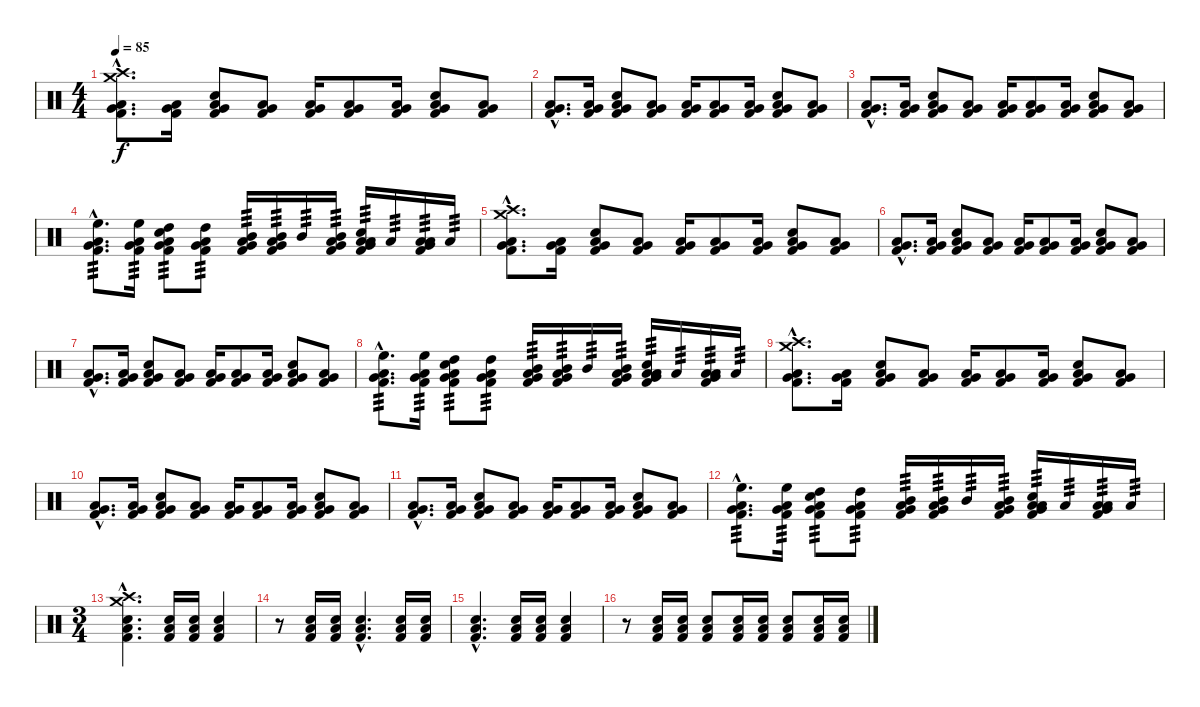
\track "" {instrument percussion}
\staff {score}
\articulation defaults
\ts (4 4)
\tempo 85
\clef neutral
\ks c
("Crash high (hit)"{hac} "Crash medium (hit)"{hac} "Low Tom (hit)"{hac} "Very Low Tom (hit)"{hac} "Kick (hit) 2"{hac}).8{d dy f} ("Low Tom (hit)" "Very Low Tom (hit)" "Kick (hit) 2").16 ("Snare (hit) 2" "Low Tom (hit)" "Very Low Tom (hit)" "Kick (hit) 2").8 ("Low Tom (hit)" "Very Low Tom (hit)" "Kick (hit) 2").8 ("Low Tom (hit)" "Very Low Tom (hit)" "Kick (hit) 2").16 ("Low Tom (hit)" "Very Low Tom (hit)" "Kick (hit) 2").8 ("Low Tom (hit)" "Very Low Tom (hit)" "Kick (hit) 2").16 ("Snare (hit) 2" "Low Tom (hit)" "Very Low Tom (hit)" "Kick (hit) 2").8 ("Low Tom (hit)" "Very Low Tom (hit)" "Kick (hit) 2").8 |
("Low Tom (hit)"{hac} "Very Low Tom (hit)"{hac} "Kick (hit) 2"{hac}).8{d} ("Low Tom (hit)" "Very Low Tom (hit)" "Kick (hit) 2").16 ("Snare (hit) 2" "Low Tom (hit)" "Very Low Tom (hit)" "Kick (hit) 2").8 ("Low Tom (hit)" "Very Low Tom (hit)" "Kick (hit) 2").8 ("Low Tom (hit)" "Very Low Tom (hit)" "Kick (hit) 2").16 ("Low Tom (hit)" "Very Low Tom (hit)" "Kick (hit) 2").8 ("Low Tom (hit)" "Very Low Tom (hit)" "Kick (hit) 2").16 ("Snare (hit) 2" "Low Tom (hit)" "Very Low Tom (hit)" "Kick (hit) 2").8 ("Low Tom (hit)" "Very Low Tom (hit)" "Kick (hit) 2").8 |
("Low Tom (hit)"{hac} "Very Low Tom (hit)"{hac} "Kick (hit) 2"{hac}).8{d} ("Low Tom (hit)" "Very Low Tom (hit)" "Kick (hit) 2").16 ("Snare (hit) 2" "Low Tom (hit)" "Very Low Tom (hit)" "Kick (hit) 2").8 ("Low Tom (hit)" "Very Low Tom (hit)" "Kick (hit) 2").8 ("Low Tom (hit)" "Very Low Tom (hit)" "Kick (hit) 2").16 ("Low Tom (hit)" "Very Low Tom (hit)" "Kick (hit) 2").8 ("Low Tom (hit)" "Very Low Tom (hit)" "Kick (hit) 2").16 ("Snare (hit) 2" "Low Tom (hit)" "Very Low Tom (hit)" "Kick (hit) 2").8 ("Low Tom (hit)" "Very Low Tom (hit)" "Kick (hit) 2").8 |
("High Floor Tom (hit)"{hac} "Low Tom (hit)"{hac} "Very Low Tom (hit)"{hac} "Kick (hit) 2"{hac}).8{d tp 3} ("High Floor Tom (hit)" "Low Tom (hit)" "Very Low Tom (hit)" "Kick (hit) 2").16{tp 3} ("High Tom (hit)" "Snare (hit) 2" "Low Tom (hit)" "Very Low Tom (hit)" "Kick (hit) 2").8{tp 3} ("High Tom (hit)" "Low Tom (hit)" "Very Low Tom (hit)" "Kick (hit) 2").8{tp 3} ("Mid Tom (hit)" "Low Tom (hit)" "Very Low Tom (hit)" "Kick (hit) 2").16{tp 3} ("Mid Tom (hit)" "Low Tom (hit)" "Very Low Tom (hit)" "Kick (hit) 2").16{tp 3} "Mid Tom (hit)".16{tp 3} ("Mid Tom (hit)" "Low Tom (hit)" "Very Low Tom (hit)" "Kick (hit) 2").16{tp 3} ("Low Tom (hit)" "Snare (hit) 2" "Low Tom (hit)" "Very Low Tom (hit)" "Kick (hit) 2").16{tp 3} "Low Tom (hit)".16{tp 3} ("Low Tom (hit)" "Low Tom (hit)" "Very Low Tom (hit)" "Kick (hit) 2").16{tp 3} "Low Tom (hit)".16{tp 3} |
("Crash high (hit)"{hac} "Crash medium (hit)"{hac} "Low Tom (hit)"{hac} "Very Low Tom (hit)"{hac} "Kick (hit) 2"{hac}).8{d} ("Low Tom (hit)" "Very Low Tom (hit)" "Kick (hit) 2").16 ("Snare (hit) 2" "Low Tom (hit)" "Very Low Tom (hit)" "Kick (hit) 2").8 ("Low Tom (hit)" "Very Low Tom (hit)" "Kick (hit) 2").8 ("Low Tom (hit)" "Very Low Tom (hit)" "Kick (hit) 2").16 ("Low Tom (hit)" "Very Low Tom (hit)" "Kick (hit) 2").8 ("Low Tom (hit)" "Very Low Tom (hit)" "Kick (hit) 2").16 ("Snare (hit) 2" "Low Tom (hit)" "Very Low Tom (hit)" "Kick (hit) 2").8 ("Low Tom (hit)" "Very Low Tom (hit)" "Kick (hit) 2").8 |
("Low Tom (hit)"{hac} "Very Low Tom (hit)"{hac} "Kick (hit) 2"{hac}).8{d} ("Low Tom (hit)" "Very Low Tom (hit)" "Kick (hit) 2").16 ("Snare (hit) 2" "Low Tom (hit)" "Very Low Tom (hit)" "Kick (hit) 2").8 ("Low Tom (hit)" "Very Low Tom (hit)" "Kick (hit) 2").8 ("Low Tom (hit)" "Very Low Tom (hit)" "Kick (hit) 2").16 ("Low Tom (hit)" "Very Low Tom (hit)" "Kick (hit) 2").8 ("Low Tom (hit)" "Very Low Tom (hit)" "Kick (hit) 2").16 ("Snare (hit) 2" "Low Tom (hit)" "Very Low Tom (hit)" "Kick (hit) 2").8 ("Low Tom (hit)" "Very Low Tom (hit)" "Kick (hit) 2").8 |
("Low Tom (hit)"{hac} "Very Low Tom (hit)"{hac} "Kick (hit) 2"{hac}).8{d} ("Low Tom (hit)" "Very Low Tom (hit)" "Kick (hit) 2").16 ("Snare (hit) 2" "Low Tom (hit)" "Very Low Tom (hit)" "Kick (hit) 2").8 ("Low Tom (hit)" "Very Low Tom (hit)" "Kick (hit) 2").8 ("Low Tom (hit)" "Very Low Tom (hit)" "Kick (hit) 2").16 ("Low Tom (hit)" "Very Low Tom (hit)" "Kick (hit) 2").8 ("Low Tom (hit)" "Very Low Tom (hit)" "Kick (hit) 2").16 ("Snare (hit) 2" "Low Tom (hit)" "Very Low Tom (hit)" "Kick (hit) 2").8 ("Low Tom (hit)" "Very Low Tom (hit)" "Kick (hit) 2").8 |
("High Floor Tom (hit)"{hac} "Low Tom (hit)"{hac} "Very Low Tom (hit)"{hac} "Kick (hit) 2"{hac}).8{d tp 3} ("High Floor Tom (hit)" "Low Tom (hit)" "Very Low Tom (hit)" "Kick (hit) 2").16{tp 3} ("High Tom (hit)" "Snare (hit) 2" "Low Tom (hit)" "Very Low Tom (hit)" "Kick (hit) 2").8{tp 3} ("High Tom (hit)" "Low Tom (hit)" "Very Low Tom (hit)" "Kick (hit) 2").8{tp 3} ("Mid Tom (hit)" "Low Tom (hit)" "Very Low Tom (hit)" "Kick (hit) 2").16{tp 3} ("Mid Tom (hit)" "Low Tom (hit)" "Very Low Tom (hit)" "Kick (hit) 2").16{tp 3} "Mid Tom (hit)".16{tp 3} ("Mid Tom (hit)" "Low Tom (hit)" "Very Low Tom (hit)" "Kick (hit) 2").16{tp 3} ("Low Tom (hit)" "Snare (hit) 2" "Low Tom (hit)" "Very Low Tom (hit)" "Kick (hit) 2").16{tp 3} "Low Tom (hit)".16{tp 3} ("Low Tom (hit)" "Low Tom (hit)" "Very Low Tom (hit)" "Kick (hit) 2").16{tp 3} "Low Tom (hit)".16{tp 3} |
("Crash high (hit)"{hac} "Crash medium (hit)"{hac} "Low Tom (hit)"{hac} "Very Low Tom (hit)"{hac} "Kick (hit) 2"{hac}).8{d} ("Low Tom (hit)" "Very Low Tom (hit)" "Kick (hit) 2").16 ("Snare (hit) 2" "Low Tom (hit)" "Very Low Tom (hit)" "Kick (hit) 2").8 ("Low Tom (hit)" "Very Low Tom (hit)" "Kick (hit) 2").8 ("Low Tom (hit)" "Very Low Tom (hit)" "Kick (hit) 2").16 ("Low Tom (hit)" "Very Low Tom (hit)" "Kick (hit) 2").8 ("Low Tom (hit)" "Very Low Tom (hit)" "Kick (hit) 2").16 ("Snare (hit) 2" "Low Tom (hit)" "Very Low Tom (hit)" "Kick (hit) 2").8 ("Low Tom (hit)" "Very Low Tom (hit)" "Kick (hit) 2").8 |
("Low Tom (hit)"{hac} "Very Low Tom (hit)"{hac} "Kick (hit) 2"{hac}).8{d} ("Low Tom (hit)" "Very Low Tom (hit)" "Kick (hit) 2").16 ("Snare (hit) 2" "Low Tom (hit)" "Very Low Tom (hit)" "Kick (hit) 2").8 ("Low Tom (hit)" "Very Low Tom (hit)" "Kick (hit) 2").8 ("Low Tom (hit)" "Very Low Tom (hit)" "Kick (hit) 2").16 ("Low Tom (hit)" "Very Low Tom (hit)" "Kick (hit) 2").8 ("Low Tom (hit)" "Very Low Tom (hit)" "Kick (hit) 2").16 ("Snare (hit) 2" "Low Tom (hit)" "Very Low Tom (hit)" "Kick (hit) 2").8 ("Low Tom (hit)" "Very Low Tom (hit)" "Kick (hit) 2").8 |
("Low Tom (hit)"{hac} "Very Low Tom (hit)"{hac} "Kick (hit) 2"{hac}).8{d} ("Low Tom (hit)" "Very Low Tom (hit)" "Kick (hit) 2").16 ("Snare (hit) 2" "Low Tom (hit)" "Very Low Tom (hit)" "Kick (hit) 2").8 ("Low Tom (hit)" "Very Low Tom (hit)" "Kick (hit) 2").8 ("Low Tom (hit)" "Very Low Tom (hit)" "Kick (hit) 2").16 ("Low Tom (hit)" "Very Low Tom (hit)" "Kick (hit) 2").8 ("Low Tom (hit)" "Very Low Tom (hit)" "Kick (hit) 2").16 ("Snare (hit) 2" "Low Tom (hit)" "Very Low Tom (hit)" "Kick (hit) 2").8 ("Low Tom (hit)" "Very Low Tom (hit)" "Kick (hit) 2").8 |
("High Floor Tom (hit)"{hac} "Low Tom (hit)"{hac} "Very Low Tom (hit)"{hac} "Kick (hit) 2"{hac}).8{d tp 3} ("High Floor Tom (hit)" "Low Tom (hit)" "Very Low Tom (hit)" "Kick (hit) 2").16{tp 3} ("High Tom (hit)" "Snare (hit) 2" "Low Tom (hit)" "Very Low Tom (hit)" "Kick (hit) 2").8{tp 3} ("High Tom (hit)" "Low Tom (hit)" "Very Low Tom (hit)" "Kick (hit) 2").8{tp 3} ("Mid Tom (hit)" "Low Tom (hit)" "Very Low Tom (hit)" "Kick (hit) 2").16{tp 3} ("Mid Tom (hit)" "Low Tom (hit)" "Very Low Tom (hit)" "Kick (hit) 2").16{tp 3} "Mid Tom (hit)".16{tp 3} ("Mid Tom (hit)" "Low Tom (hit)" "Very Low Tom (hit)" "Kick (hit) 2").16{tp 3} ("Low Tom (hit)" "Snare (hit) 2" "Low Tom (hit)" "Very Low Tom (hit)" "Kick (hit) 2").16{tp 3} "Low Tom (hit)".16{tp 3} ("Low Tom (hit)" "Low Tom (hit)" "Very Low Tom (hit)" "Kick (hit) 2").16{tp 3} "Low Tom (hit)".16{tp 3} |
\ts (3 4)
("Crash high (hit)"{hac} "Crash medium (hit)"{hac} "Low Floor Tom (hit)"{hac} "Snare (hit) 2"{hac} "Kick (hit) 2"{hac}).4{d} ("Low Floor Tom (hit)" "Snare (hit) 2" "Kick (hit) 2").16 ("Low Floor Tom (hit)" "Snare (hit) 2" "Kick (hit) 2").16 ("Low Floor Tom (hit)" "Snare (hit) 2" "Kick (hit) 2").4 |
r.8 ("Low Floor Tom (hit)" "Snare (hit) 2" "Kick (hit) 2").16 ("Low Floor Tom (hit)" "Snare (hit) 2" "Kick (hit) 2").16 ("Low Floor Tom (hit)"{hac} "Snare (hit) 2"{hac} "Kick (hit) 2"{hac}).4{d} ("Low Floor Tom (hit)" "Snare (hit) 2" "Kick (hit) 2").16 ("Low Floor Tom (hit)" "Snare (hit) 2" "Kick (hit) 2").16 |
("Low Floor Tom (hit)"{hac} "Snare (hit) 2"{hac} "Kick (hit) 2"{hac}).4{d} ("Low Floor Tom (hit)" "Snare (hit) 2" "Kick (hit) 2").16 ("Low Floor Tom (hit)" "Snare (hit) 2" "Kick (hit) 2").16 ("Low Floor Tom (hit)" "Snare (hit) 2" "Kick (hit) 2").4 |
r.8 ("Low Floor Tom (hit)" "Snare (hit) 2" "Kick (hit) 2").16 ("Low Floor Tom (hit)" "Snare (hit) 2" "Kick (hit) 2").16 ("Low Floor Tom (hit)" "Snare (hit) 2" "Kick (hit) 2").8 ("Low Floor Tom (hit)" "Snare (hit) 2" "Kick (hit) 2").16 ("Low Floor Tom (hit)" "Snare (hit) 2" "Kick (hit) 2").16 ("Low Floor Tom (hit)" "Snare (hit) 2" "Kick (hit) 2").8 ("Low Floor Tom (hit)" "Snare (hit) 2" "Kick (hit) 2").16 ("Low Floor Tom (hit)" "Snare (hit) 2" "Kick (hit) 2").16
